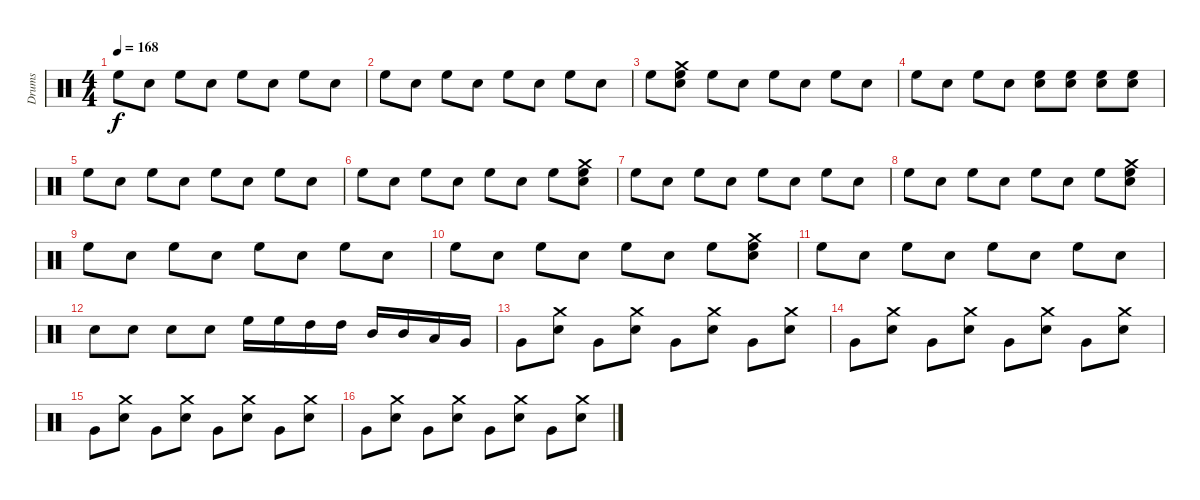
\track ("Drums" "Drums") {instrument percussion}
\staff {score}
\articulation defaults
\ts (4 4)
\tempo 168
\clef neutral
\ks c "High Floor Tom (hit)".8{dy f} "Electric Snare (hit)".8 "High Floor Tom (hit)".8 "Electric Snare (hit)".8 "High Floor Tom (hit)".8 "Electric Snare (hit)".8 "High Floor Tom (hit)".8 "Electric Snare (hit)".8
|
"High Floor Tom (hit)".8 "Electric Snare (hit)".8 "High Floor Tom (hit)".8 "Electric Snare (hit)".8 "High Floor Tom (hit)".8 "Electric Snare (hit)".8 "High Floor Tom (hit)".8 "Electric Snare (hit)".8 |
"High Floor Tom (hit)".8 ("Electric Snare (hit)" "Crash medium (hit)" "High Floor Tom (hit)").8 "High Floor Tom (hit)".8 "Electric Snare (hit)".8 "High Floor Tom (hit)".8 "Electric Snare (hit)".8 "High Floor Tom (hit)".8 "Electric Snare (hit)".8 |
"High Floor Tom (hit)".8 "Electric Snare (hit)".8 "High Floor Tom (hit)".8 "Electric Snare (hit)".8 ("High Floor Tom (hit)" "Electric Snare (hit)").8 ("High Floor Tom (hit)" "Electric Snare (hit)").8 ("High Floor Tom (hit)" "Electric Snare (hit)").8 ("High Floor Tom (hit)" "Electric Snare (hit)").8 |
"High Floor Tom (hit)".8 "Electric Snare (hit)".8 "High Floor Tom (hit)".8 "Electric Snare (hit)".8 "High Floor Tom (hit)".8 "Electric Snare (hit)".8 "High Floor Tom (hit)".8 "Electric Snare (hit)".8 |
"High Floor Tom (hit)".8 "Electric Snare (hit)".8 "High Floor Tom (hit)".8 "Electric Snare (hit)".8 "High Floor Tom (hit)".8 "Electric Snare (hit)".8 "High Floor Tom (hit)".8 ("Electric Snare (hit)" "Crash medium (hit)" "High Floor Tom (hit)").8 |
"High Floor Tom (hit)".8 "Electric Snare (hit)".8 "High Floor Tom (hit)".8 "Electric Snare (hit)".8 "High Floor Tom (hit)".8 "Electric Snare (hit)".8 "High Floor Tom (hit)".8 "Electric Snare (hit)".8 |
"High Floor Tom (hit)".8 "Electric Snare (hit)".8 "High Floor Tom (hit)".8 "Electric Snare (hit)".8 "High Floor Tom (hit)".8 "Electric Snare (hit)".8 "High Floor Tom (hit)".8 ("Electric Snare (hit)" "Crash medium (hit)" "High Floor Tom (hit)").8 |
"High Floor Tom (hit)".8 "Electric Snare (hit)".8 "High Floor Tom (hit)".8 "Electric Snare (hit)".8 "High Floor Tom (hit)".8 "Electric Snare (hit)".8 "High Floor Tom (hit)".8 "Electric Snare (hit)".8 |
"High Floor Tom (hit)".8 "Electric Snare (hit)".8 "High Floor Tom (hit)".8 "Electric Snare (hit)".8 "High Floor Tom (hit)".8 "Electric Snare (hit)".8 "High Floor Tom (hit)".8 ("Electric Snare (hit)" "Crash medium (hit)" "High Floor Tom (hit)").8 |
"High Floor Tom (hit)".8 "Electric Snare (hit)".8 "High Floor Tom (hit)".8 "Electric Snare (hit)".8 "High Floor Tom (hit)".8 "Electric Snare (hit)".8 "High Floor Tom (hit)".8 "Electric Snare (hit)".8 |
"Electric Snare (hit)".8 "Electric Snare (hit)".8 "Electric Snare (hit)".8 "Electric Snare (hit)".8 "High Floor Tom (hit)".16 "High Floor Tom (hit)".16 "High Tom (hit)".16 "High Tom (hit)".16 "Mid Tom (hit)".16 "Mid Tom (hit)".16 "Low Tom (hit)".16 "Very Low Tom (hit)".16 |
"Very Low Tom (hit)".8 ("Crash medium (hit)" "Electric Snare (hit)").8 "Very Low Tom (hit)".8 ("Crash medium (hit)" "Electric Snare (hit)").8 "Very Low Tom (hit)".8 ("Crash medium (hit)" "Electric Snare (hit)").8 "Very Low Tom (hit)".8 ("Crash medium (hit)" "Electric Snare (hit)").8 |
"Very Low Tom (hit)".8 ("Electric Snare (hit)" "Crash medium (hit)").8 "Very Low Tom (hit)".8 ("Electric Snare (hit)" "Crash medium (hit)").8 "Very Low Tom (hit)".8 ("Electric Snare (hit)" "Crash medium (hit)").8 "Very Low Tom (hit)".8 ("Electric Snare (hit)" "Crash medium (hit)").8 |
"Very Low Tom (hit)".8 ("Crash medium (hit)" "Electric Snare (hit)").8 "Very Low Tom (hit)".8 ("Crash medium (hit)" "Electric Snare (hit)").8 "Very Low Tom (hit)".8 ("Crash medium (hit)" "Electric Snare (hit)").8 "Very Low Tom (hit)".8 ("Crash medium (hit)" "Electric Snare (hit)").8 |
"Very Low Tom (hit)".8 ("Electric Snare (hit)" "Crash medium (hit)").8 "Very Low Tom (hit)".8 ("Electric Snare (hit)" "Crash medium (hit)").8 "Very Low Tom (hit)".8 ("Electric Snare (hit)" "Crash medium (hit)").8 "Very Low Tom (hit)".8 ("Electric Snare (hit)" "Crash medium (hit)").8
